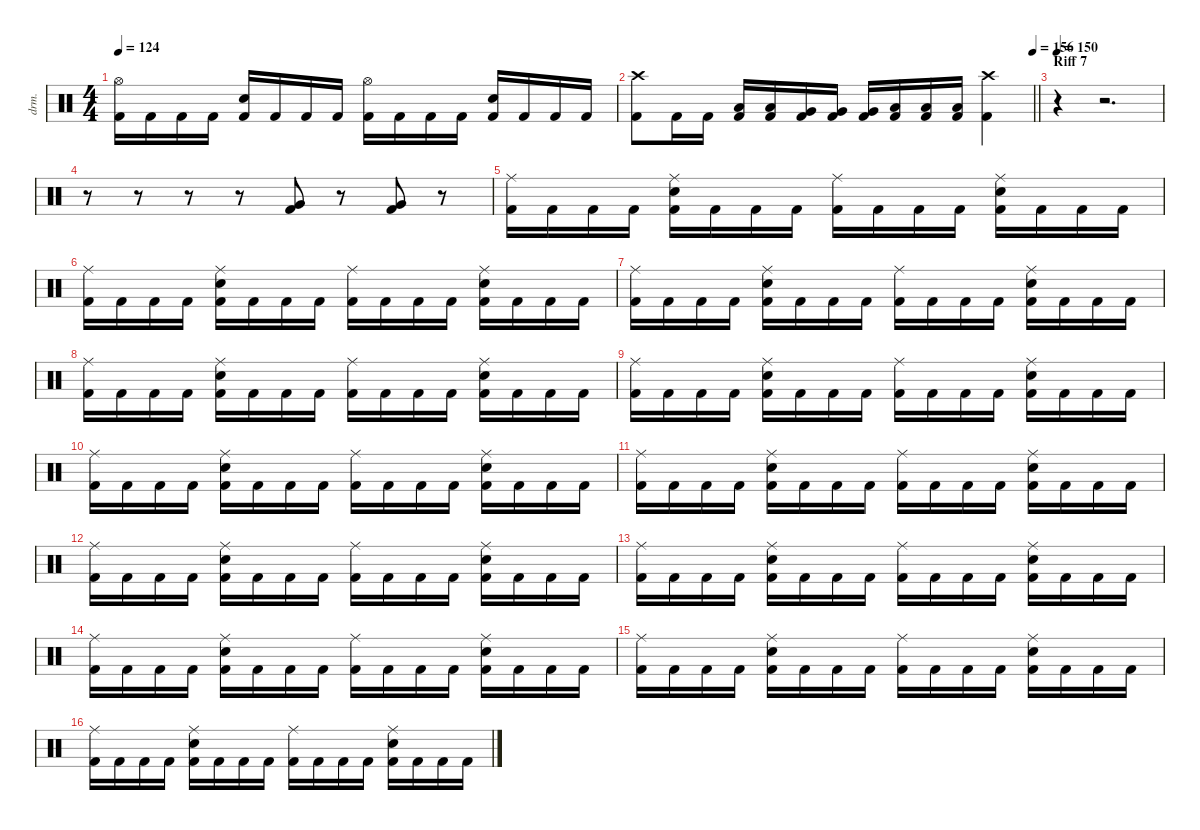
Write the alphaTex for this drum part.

\defaultSystemsLayout 4
\hideDynamics
\bracketExtendMode nobrackets
\otherSystemsTrackNameOrientation horizontal
\track ("Drums" "drm.") {instrument percussion}
\staff {score}
\articulation defaults
\ts (4 4)
\tempo 124
\clef neutral
\ks c
("Hi-Hat (open)" "Kick (hit) 2").16{dy f} "Kick (hit) 2".16 "Kick (hit) 2".16 "Kick (hit) 2".16 ("Snare (hit) 2" "Kick (hit) 2").16 "Kick (hit) 2".16 "Kick (hit) 2".16 "Kick (hit) 2".16 ("Hi-Hat (open)" "Kick (hit) 2").16 "Kick (hit) 2".16 "Kick (hit) 2".16 "Kick (hit) 2".16 ("Snare (hit) 2" "Kick (hit) 2").16 "Kick (hit) 2".16 "Kick (hit) 2".16 "Kick (hit) 2".16 |
\tempo (156 1)
\barLineRight lightlight
("Crash high (hit)" "Kick (hit) 2").8 "Kick (hit) 2".16 "Kick (hit) 2".16 ("Low Tom (hit)" "Kick (hit) 2").16 ("Low Tom (hit)" "Kick (hit) 2").16 ("Very Low Tom (hit)" "Kick (hit) 2").16 ("Very Low Tom (hit)" "Kick (hit) 2").16 ("Very Low Tom (hit)" "Kick (hit) 2").16 ("Low Floor Tom (hit)" "Kick (hit) 2").16 ("Low Floor Tom (hit)" "Kick (hit) 2").16 ("Low Floor Tom (hit)" "Kick (hit) 2").16 ("Crash high (hit)" "Kick (hit) 2").4 |
\section ("" "Riff 7")
\tempo 150
r.4 r.2{d} |
r.8 r.8 r.8 r.8 ("Kick (hit) 2" "Very Low Tom (hit)").8 r.8 ("Kick (hit) 2" "Very Low Tom (hit)").8 r.8 |
("Ride (middle)" "Kick (hit) 2").16 "Kick (hit) 2".16 "Kick (hit) 2".16 "Kick (hit) 2".16 ("Snare (hit) 2" "Ride (middle)" "Kick (hit) 2").16 "Kick (hit) 2".16 "Kick (hit) 2".16 "Kick (hit) 2".16 ("Ride (middle)" "Kick (hit) 2").16 "Kick (hit) 2".16 "Kick (hit) 2".16 "Kick (hit) 2".16 ("Snare (hit) 2" "Ride (middle)" "Kick (hit) 2").16 "Kick (hit) 2".16 "Kick (hit) 2".16 "Kick (hit) 2".16 |
("Ride (middle)" "Kick (hit) 2").16 "Kick (hit) 2".16 "Kick (hit) 2".16 "Kick (hit) 2".16 ("Snare (hit) 2" "Ride (middle)" "Kick (hit) 2").16 "Kick (hit) 2".16 "Kick (hit) 2".16 "Kick (hit) 2".16 ("Ride (middle)" "Kick (hit) 2").16 "Kick (hit) 2".16 "Kick (hit) 2".16 "Kick (hit) 2".16 ("Snare (hit) 2" "Ride (middle)" "Kick (hit) 2").16 "Kick (hit) 2".16 "Kick (hit) 2".16 "Kick (hit) 2".16 |
("Ride (middle)" "Kick (hit) 2").16 "Kick (hit) 2".16 "Kick (hit) 2".16 "Kick (hit) 2".16 ("Snare (hit) 2" "Ride (middle)" "Kick (hit) 2").16 "Kick (hit) 2".16 "Kick (hit) 2".16 "Kick (hit) 2".16 ("Ride (middle)" "Kick (hit) 2").16 "Kick (hit) 2".16 "Kick (hit) 2".16 "Kick (hit) 2".16 ("Snare (hit) 2" "Ride (middle)" "Kick (hit) 2").16 "Kick (hit) 2".16 "Kick (hit) 2".16 "Kick (hit) 2".16 |
("Ride (middle)" "Kick (hit) 2").16 "Kick (hit) 2".16 "Kick (hit) 2".16 "Kick (hit) 2".16 ("Snare (hit) 2" "Ride (middle)" "Kick (hit) 2").16 "Kick (hit) 2".16 "Kick (hit) 2".16 "Kick (hit) 2".16 ("Ride (middle)" "Kick (hit) 2").16 "Kick (hit) 2".16 "Kick (hit) 2".16 "Kick (hit) 2".16 ("Snare (hit) 2" "Ride (middle)" "Kick (hit) 2").16 "Kick (hit) 2".16 "Kick (hit) 2".16 "Kick (hit) 2".16 |
("Ride (middle)" "Kick (hit) 2").16 "Kick (hit) 2".16 "Kick (hit) 2".16 "Kick (hit) 2".16 ("Snare (hit) 2" "Ride (middle)" "Kick (hit) 2").16 "Kick (hit) 2".16 "Kick (hit) 2".16 "Kick (hit) 2".16 ("Ride (middle)" "Kick (hit) 2").16 "Kick (hit) 2".16 "Kick (hit) 2".16 "Kick (hit) 2".16 ("Snare (hit) 2" "Ride (middle)" "Kick (hit) 2").16 "Kick (hit) 2".16 "Kick (hit) 2".16 "Kick (hit) 2".16 |
("Ride (middle)" "Kick (hit) 2").16 "Kick (hit) 2".16 "Kick (hit) 2".16 "Kick (hit) 2".16 ("Snare (hit) 2" "Ride (middle)" "Kick (hit) 2").16 "Kick (hit) 2".16 "Kick (hit) 2".16 "Kick (hit) 2".16 ("Ride (middle)" "Kick (hit) 2").16 "Kick (hit) 2".16 "Kick (hit) 2".16 "Kick (hit) 2".16 ("Snare (hit) 2" "Ride (middle)" "Kick (hit) 2").16 "Kick (hit) 2".16 "Kick (hit) 2".16 "Kick (hit) 2".16 |
("Ride (middle)" "Kick (hit) 2").16 "Kick (hit) 2".16 "Kick (hit) 2".16 "Kick (hit) 2".16 ("Snare (hit) 2" "Ride (middle)" "Kick (hit) 2").16 "Kick (hit) 2".16 "Kick (hit) 2".16 "Kick (hit) 2".16 ("Ride (middle)" "Kick (hit) 2").16 "Kick (hit) 2".16 "Kick (hit) 2".16 "Kick (hit) 2".16 ("Snare (hit) 2" "Ride (middle)" "Kick (hit) 2").16 "Kick (hit) 2".16 "Kick (hit) 2".16 "Kick (hit) 2".16 |
("Ride (middle)" "Kick (hit) 2").16 "Kick (hit) 2".16 "Kick (hit) 2".16 "Kick (hit) 2".16 ("Snare (hit) 2" "Ride (middle)" "Kick (hit) 2").16 "Kick (hit) 2".16 "Kick (hit) 2".16 "Kick (hit) 2".16 ("Ride (middle)" "Kick (hit) 2").16 "Kick (hit) 2".16 "Kick (hit) 2".16 "Kick (hit) 2".16 ("Snare (hit) 2" "Ride (middle)" "Kick (hit) 2").16 "Kick (hit) 2".16 "Kick (hit) 2".16 "Kick (hit) 2".16 |
("Ride (middle)" "Kick (hit) 2").16 "Kick (hit) 2".16 "Kick (hit) 2".16 "Kick (hit) 2".16 ("Snare (hit) 2" "Ride (middle)" "Kick (hit) 2").16 "Kick (hit) 2".16 "Kick (hit) 2".16 "Kick (hit) 2".16 ("Ride (middle)" "Kick (hit) 2").16 "Kick (hit) 2".16 "Kick (hit) 2".16 "Kick (hit) 2".16 ("Snare (hit) 2" "Ride (middle)" "Kick (hit) 2").16 "Kick (hit) 2".16 "Kick (hit) 2".16 "Kick (hit) 2".16 |
("Ride (middle)" "Kick (hit) 2").16 "Kick (hit) 2".16 "Kick (hit) 2".16 "Kick (hit) 2".16 ("Snare (hit) 2" "Ride (middle)" "Kick (hit) 2").16 "Kick (hit) 2".16 "Kick (hit) 2".16 "Kick (hit) 2".16 ("Ride (middle)" "Kick (hit) 2").16 "Kick (hit) 2".16 "Kick (hit) 2".16 "Kick (hit) 2".16 ("Snare (hit) 2" "Ride (middle)" "Kick (hit) 2").16 "Kick (hit) 2".16 "Kick (hit) 2".16 "Kick (hit) 2".16 |
("Ride (middle)" "Kick (hit) 2").16 "Kick (hit) 2".16 "Kick (hit) 2".16 "Kick (hit) 2".16 ("Snare (hit) 2" "Ride (middle)" "Kick (hit) 2").16 "Kick (hit) 2".16 "Kick (hit) 2".16 "Kick (hit) 2".16 ("Ride (middle)" "Kick (hit) 2").16 "Kick (hit) 2".16 "Kick (hit) 2".16 "Kick (hit) 2".16 ("Snare (hit) 2" "Ride (middle)" "Kick (hit) 2").16 "Kick (hit) 2".16 "Kick (hit) 2".16 "Kick (hit) 2".16 |
("Ride (middle)" "Kick (hit) 2").16 "Kick (hit) 2".16 "Kick (hit) 2".16 "Kick (hit) 2".16 ("Snare (hit) 2" "Ride (middle)" "Kick (hit) 2").16 "Kick (hit) 2".16 "Kick (hit) 2".16 "Kick (hit) 2".16 ("Ride (middle)" "Kick (hit) 2").16 "Kick (hit) 2".16 "Kick (hit) 2".16 "Kick (hit) 2".16 ("Snare (hit) 2" "Ride (middle)" "Kick (hit) 2").16 "Kick (hit) 2".16 "Kick (hit) 2".16 "Kick (hit) 2".16
